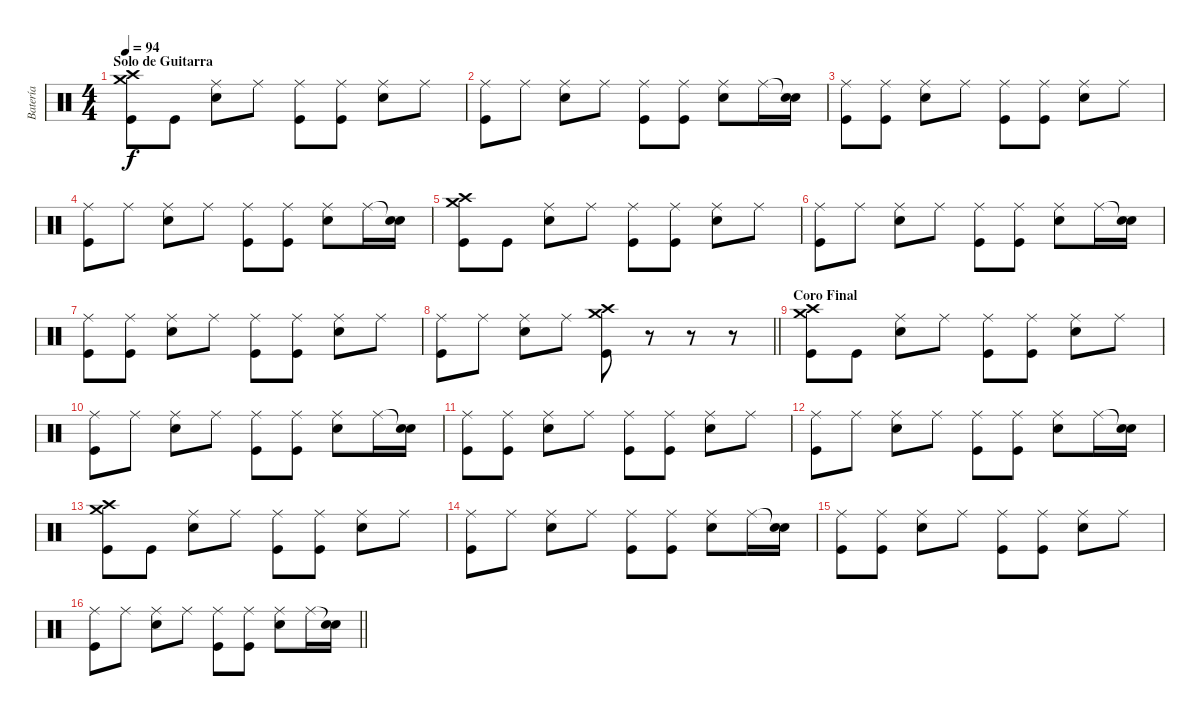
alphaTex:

\track ("Batería" "Batería") {instrument percussion}
\staff {score}
\articulation defaults
\ts (4 4)
\section ("" "Solo de Guitarra")
\tempo 94
\clef neutral
\ks c
("Crash medium (hit)" "Crash high (hit)" "Kick (hit)").8{dy f} "Kick (hit)".8 ("Ride (middle)" "Snare (hit) 2").8 "Ride (middle)".8 ("Ride (middle)" "Kick (hit)").8 ("Ride (middle)" "Kick (hit)").8 ("Ride (middle)" "Snare (hit) 2").8 "Ride (middle)".8 |
("Ride (middle)" "Kick (hit)").8 "Ride (middle)".8 ("Ride (middle)" "Snare (hit) 2").8 "Ride (middle)".8 ("Ride (middle)" "Kick (hit)").8 ("Ride (middle)" "Kick (hit)").8 ("Ride (middle)" "Snare (hit) 2").8 "Ride (middle)".16 ("Snare (hit)"{t} "Snare (hit) 2").16 |
("Ride (middle)" "Kick (hit)").8 ("Ride (middle)" "Kick (hit)").8 ("Ride (middle)" "Snare (hit) 2").8 "Ride (middle)".8 ("Ride (middle)" "Kick (hit)").8 ("Ride (middle)" "Kick (hit)").8 ("Ride (middle)" "Snare (hit) 2").8 "Ride (middle)".8 |
("Ride (middle)" "Kick (hit)").8 "Ride (middle)".8 ("Ride (middle)" "Snare (hit) 2").8 "Ride (middle)".8 ("Ride (middle)" "Kick (hit)").8 ("Ride (middle)" "Kick (hit)").8 ("Ride (middle)" "Snare (hit) 2").8 "Ride (middle)".16 ("Snare (hit)"{t} "Snare (hit) 2").16 |
("Crash medium (hit)" "Crash high (hit)" "Kick (hit)").8 "Kick (hit)".8 ("Ride (middle)" "Snare (hit) 2").8 "Ride (middle)".8 ("Ride (middle)" "Kick (hit)").8 ("Ride (middle)" "Kick (hit)").8 ("Ride (middle)" "Snare (hit) 2").8 "Ride (middle)".8 |
("Ride (middle)" "Kick (hit)").8 "Ride (middle)".8 ("Ride (middle)" "Snare (hit) 2").8 "Ride (middle)".8 ("Ride (middle)" "Kick (hit)").8 ("Ride (middle)" "Kick (hit)").8 ("Ride (middle)" "Snare (hit) 2").8 "Ride (middle)".16 ("Snare (hit)"{t} "Snare (hit) 2").16 |
("Ride (middle)" "Kick (hit)").8 ("Ride (middle)" "Kick (hit)").8 ("Ride (middle)" "Snare (hit) 2").8 "Ride (middle)".8 ("Ride (middle)" "Kick (hit)").8 ("Ride (middle)" "Kick (hit)").8 ("Ride (middle)" "Snare (hit) 2").8 "Ride (middle)".8 |
\barLineRight lightlight
("Ride (middle)" "Kick (hit)").8 "Ride (middle)".8 ("Ride (middle)" "Snare (hit) 2").8 "Ride (middle)".8 ("Crash medium (hit)" "Crash high (hit)" "Kick (hit)").8 r.8 r.8 r.8 |
\section ("" "Coro Final")
("Crash medium (hit)" "Crash high (hit)" "Kick (hit)").8 "Kick (hit)".8 ("Ride (middle)" "Snare (hit) 2").8 "Ride (middle)".8 ("Ride (middle)" "Kick (hit)").8 ("Ride (middle)" "Kick (hit)").8 ("Ride (middle)" "Snare (hit) 2").8 "Ride (middle)".8 |
("Ride (middle)" "Kick (hit)").8 "Ride (middle)".8 ("Ride (middle)" "Snare (hit) 2").8 "Ride (middle)".8 ("Ride (middle)" "Kick (hit)").8 ("Ride (middle)" "Kick (hit)").8 ("Ride (middle)" "Snare (hit) 2").8 "Ride (middle)".16 ("Snare (hit)"{t} "Snare (hit) 2").16 |
("Ride (middle)" "Kick (hit)").8 ("Ride (middle)" "Kick (hit)").8 ("Ride (middle)" "Snare (hit) 2").8 "Ride (middle)".8 ("Ride (middle)" "Kick (hit)").8 ("Ride (middle)" "Kick (hit)").8 ("Ride (middle)" "Snare (hit) 2").8 "Ride (middle)".8 |
("Ride (middle)" "Kick (hit)").8 "Ride (middle)".8 ("Ride (middle)" "Snare (hit) 2").8 "Ride (middle)".8 ("Ride (middle)" "Kick (hit)").8 ("Ride (middle)" "Kick (hit)").8 ("Ride (middle)" "Snare (hit) 2").8 "Ride (middle)".16 ("Snare (hit)"{t} "Snare (hit) 2").16 |
("Crash medium (hit)" "Crash high (hit)" "Kick (hit)").8 "Kick (hit)".8 ("Ride (middle)" "Snare (hit) 2").8 "Ride (middle)".8 ("Ride (middle)" "Kick (hit)").8 ("Ride (middle)" "Kick (hit)").8 ("Ride (middle)" "Snare (hit) 2").8 "Ride (middle)".8 |
("Ride (middle)" "Kick (hit)").8 "Ride (middle)".8 ("Ride (middle)" "Snare (hit) 2").8 "Ride (middle)".8 ("Ride (middle)" "Kick (hit)").8 ("Ride (middle)" "Kick (hit)").8 ("Ride (middle)" "Snare (hit) 2").8 "Ride (middle)".16 ("Snare (hit)"{t} "Snare (hit) 2").16 |
("Ride (middle)" "Kick (hit)").8 ("Ride (middle)" "Kick (hit)").8 ("Ride (middle)" "Snare (hit) 2").8 "Ride (middle)".8 ("Ride (middle)" "Kick (hit)").8 ("Ride (middle)" "Kick (hit)").8 ("Ride (middle)" "Snare (hit) 2").8 "Ride (middle)".8 |
\barLineRight lightlight
("Ride (middle)" "Kick (hit)").8 "Ride (middle)".8 ("Ride (middle)" "Snare (hit) 2").8 "Ride (middle)".8 ("Ride (middle)" "Kick (hit)").8 ("Ride (middle)" "Kick (hit)").8 ("Ride (middle)" "Snare (hit) 2").8 "Ride (middle)".16 ("Snare (hit)"{t} "Snare (hit) 2").16
